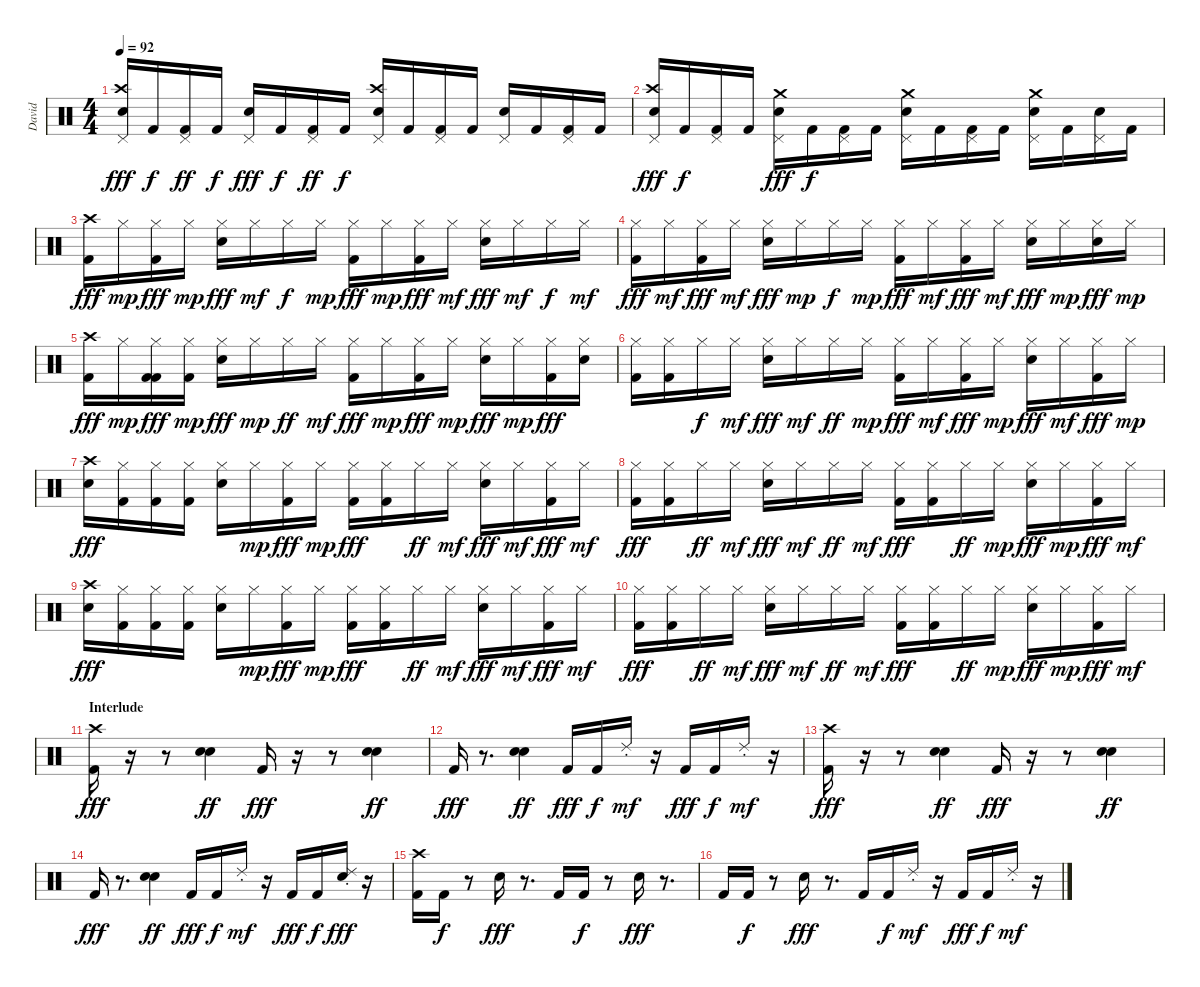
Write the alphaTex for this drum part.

\track ("David" "David") {instrument percussion}
\staff {score}
\articulation defaults
\ts (4 4)
\tempo 92
\clef neutral
\ks c
("Pedal Hi-Hat (hit)" "Crash high (hit)" "Electric Snare (hit)").16{dy fff} "Kick (hit) 2".16{dy f} ("Pedal Hi-Hat (hit)" "Kick (hit) 2").16{dy ff} "Kick (hit) 2".16{dy f} ("Pedal Hi-Hat (hit)" "Electric Snare (hit)").16{dy fff} "Kick (hit) 2".16{dy f} ("Pedal Hi-Hat (hit)" "Kick (hit) 2").16{dy ff} "Kick (hit) 2".16{dy f} ("Pedal Hi-Hat (hit)" "Crash high (hit)" "Electric Snare (hit)").16 "Kick (hit) 2".16 ("Pedal Hi-Hat (hit)" "Kick (hit) 2").16 "Kick (hit) 2".16 ("Pedal Hi-Hat (hit)" "Electric Snare (hit)").16 "Kick (hit) 2".16 ("Pedal Hi-Hat (hit)" "Kick (hit) 2").16 "Kick (hit) 2".16 |
("Pedal Hi-Hat (hit)" "Crash high (hit)" "Electric Snare (hit)").16{dy fff} "Kick (hit) 2".16{dy f} ("Pedal Hi-Hat (hit)" "Kick (hit) 2").16 "Kick (hit) 2".16 ("Pedal Hi-Hat (hit)" "Crash medium (hit)" "Electric Snare (hit)").16{dy fff} "Kick (hit) 2".16{dy f} ("Pedal Hi-Hat (hit)" "Kick (hit) 2").16 "Kick (hit) 2".16 ("Pedal Hi-Hat (hit)" "Crash medium (hit)" "Electric Snare (hit)").16 "Kick (hit) 2".16 ("Pedal Hi-Hat (hit)" "Kick (hit) 2").16 "Kick (hit) 2".16 ("Pedal Hi-Hat (hit)" "Crash medium (hit)" "Electric Snare (hit)").16 "Kick (hit) 2".16 ("Pedal Hi-Hat (hit)" "Electric Snare (hit)").16 "Kick (hit) 2".16 |
("Crash high (hit)" "Kick (hit) 2").16{dy fff} "Hi-Hat (closed)".16{dy mp} ("Hi-Hat (closed)" "Kick (hit) 2").16{dy fff} "Hi-Hat (closed)".16{dy mp} ("Hi-Hat (closed)" "Electric Snare (hit)").16{dy fff} "Hi-Hat (closed)".16{dy mf} "Hi-Hat (closed)".16{dy f} "Hi-Hat (closed)".16{dy mp} ("Hi-Hat (closed)" "Kick (hit) 2").16{dy fff} "Hi-Hat (closed)".16{dy mp} ("Hi-Hat (closed)" "Kick (hit) 2").16{dy fff} "Hi-Hat (closed)".16{dy mf} ("Hi-Hat (closed)" "Electric Snare (hit)").16{dy fff} "Hi-Hat (closed)".16{dy mf} "Hi-Hat (closed)".16{dy f} "Hi-Hat (closed)".16{dy mf} |
("Hi-Hat (closed)" "Kick (hit) 2").16{dy fff} "Hi-Hat (closed)".16{dy mf} ("Hi-Hat (closed)" "Kick (hit) 2").16{dy fff} "Hi-Hat (closed)".16{dy mf} ("Hi-Hat (closed)" "Electric Snare (hit)").16{dy fff} "Hi-Hat (closed)".16{dy mp} "Hi-Hat (closed)".16{dy f} "Hi-Hat (closed)".16{dy mp} ("Hi-Hat (closed)" "Kick (hit) 2").16{dy fff} "Hi-Hat (closed)".16{dy mf} ("Hi-Hat (closed)" "Kick (hit) 2").16{dy fff} "Hi-Hat (closed)".16{dy mf} ("Hi-Hat (closed)" "Electric Snare (hit)").16{dy fff} "Hi-Hat (closed)".16{dy mp} ("Hi-Hat (closed)" "Electric Snare (hit)").16{dy fff} "Hi-Hat (closed)".16{dy mp} |
("Crash high (hit)" "Kick (hit) 2").16{dy fff} "Hi-Hat (closed)".16{dy mp} ("Hi-Hat (closed)" "Kick (hit) 2" "Kick (hit) 2").16{dy fff} ("Hi-Hat (closed)" "Kick (hit) 2").16{dy mp} ("Hi-Hat (closed)" "Electric Snare (hit)").16{dy fff} "Hi-Hat (closed)".16{dy mp} "Hi-Hat (closed)".16{dy ff} "Hi-Hat (closed)".16{dy mf} ("Hi-Hat (closed)" "Kick (hit) 2").16{dy fff} "Hi-Hat (closed)".16{dy mp} ("Hi-Hat (closed)" "Kick (hit) 2").16{dy fff} "Hi-Hat (closed)".16{dy mp} ("Hi-Hat (closed)" "Electric Snare (hit)").16{dy fff} "Hi-Hat (closed)".16{dy mp} ("Hi-Hat (closed)" "Kick (hit) 2").16{dy fff} ("Hi-Hat (closed)" "Electric Snare (hit)").16 |
("Hi-Hat (closed)" "Kick (hit) 2").16 ("Hi-Hat (closed)" "Kick (hit) 2").16 "Hi-Hat (closed)".16{dy f} "Hi-Hat (closed)".16{dy mf} ("Hi-Hat (closed)" "Electric Snare (hit)").16{dy fff} "Hi-Hat (closed)".16{dy mf} "Hi-Hat (closed)".16{dy ff} "Hi-Hat (closed)".16{dy mp} ("Hi-Hat (closed)" "Kick (hit) 2").16{dy fff} "Hi-Hat (closed)".16{dy mf} ("Hi-Hat (closed)" "Kick (hit) 2").16{dy fff} "Hi-Hat (closed)".16{dy mp} ("Hi-Hat (closed)" "Electric Snare (hit)").16{dy fff} "Hi-Hat (closed)".16{dy mf} ("Hi-Hat (closed)" "Kick (hit) 2").16{dy fff} "Hi-Hat (closed)".16{dy mp} |
("Crash high (hit)" "Electric Snare (hit)").16{dy fff} ("Hi-Hat (closed)" "Kick (hit) 2").16 ("Hi-Hat (closed)" "Kick (hit) 2").16 ("Hi-Hat (closed)" "Kick (hit) 2").16 ("Hi-Hat (closed)" "Electric Snare (hit)").16 "Hi-Hat (closed)".16{dy mp} ("Hi-Hat (closed)" "Kick (hit) 2").16{dy fff} "Hi-Hat (closed)".16{dy mp} ("Hi-Hat (closed)" "Kick (hit) 2").16{dy fff} ("Hi-Hat (closed)" "Kick (hit) 2").16 "Hi-Hat (closed)".16{dy ff} "Hi-Hat (closed)".16{dy mf} ("Hi-Hat (closed)" "Electric Snare (hit)").16{dy fff} "Hi-Hat (closed)".16{dy mf} ("Hi-Hat (closed)" "Kick (hit) 2").16{dy fff} "Hi-Hat (closed)".16{dy mf} |
("Hi-Hat (closed)" "Kick (hit) 2").16{dy fff} ("Hi-Hat (closed)" "Kick (hit) 2").16 "Hi-Hat (closed)".16{dy ff} "Hi-Hat (closed)".16{dy mf} ("Hi-Hat (closed)" "Electric Snare (hit)").16{dy fff} "Hi-Hat (closed)".16{dy mf} "Hi-Hat (closed)".16{dy ff} "Hi-Hat (closed)".16{dy mf} ("Hi-Hat (closed)" "Kick (hit) 2").16{dy fff} ("Hi-Hat (closed)" "Kick (hit) 2").16 "Hi-Hat (closed)".16{dy ff} "Hi-Hat (closed)".16{dy mp} ("Hi-Hat (closed)" "Electric Snare (hit)").16{dy fff} "Hi-Hat (closed)".16{dy mp} ("Hi-Hat (closed)" "Kick (hit) 2").16{dy fff} "Hi-Hat (closed)".16{dy mf} |
("Crash high (hit)" "Electric Snare (hit)").16{dy fff} ("Hi-Hat (closed)" "Kick (hit) 2").16 ("Hi-Hat (closed)" "Kick (hit) 2").16 ("Hi-Hat (closed)" "Kick (hit) 2").16 ("Hi-Hat (closed)" "Electric Snare (hit)").16 "Hi-Hat (closed)".16{dy mp} ("Hi-Hat (closed)" "Kick (hit) 2").16{dy fff} "Hi-Hat (closed)".16{dy mp} ("Hi-Hat (closed)" "Kick (hit) 2").16{dy fff} ("Hi-Hat (closed)" "Kick (hit) 2").16 "Hi-Hat (closed)".16{dy ff} "Hi-Hat (closed)".16{dy mf} ("Hi-Hat (closed)" "Electric Snare (hit)").16{dy fff} "Hi-Hat (closed)".16{dy mf} ("Hi-Hat (closed)" "Kick (hit) 2").16{dy fff} "Hi-Hat (closed)".16{dy mf} |
("Hi-Hat (closed)" "Kick (hit) 2").16{dy fff} ("Hi-Hat (closed)" "Kick (hit) 2").16 "Hi-Hat (closed)".16{dy ff} "Hi-Hat (closed)".16{dy mf} ("Hi-Hat (closed)" "Electric Snare (hit)").16{dy fff} "Hi-Hat (closed)".16{dy mf} "Hi-Hat (closed)".16{dy ff} "Hi-Hat (closed)".16{dy mf} ("Hi-Hat (closed)" "Kick (hit) 2").16{dy fff} ("Hi-Hat (closed)" "Kick (hit) 2").16 "Hi-Hat (closed)".16{dy ff} "Hi-Hat (closed)".16{dy mp} ("Hi-Hat (closed)" "Electric Snare (hit)").16{dy fff} "Hi-Hat (closed)".16{dy mp} ("Hi-Hat (closed)" "Kick (hit) 2").16{dy fff} "Hi-Hat (closed)".16{dy mf} |
\section ("" "Interlude")
("Crash high (hit)" "Kick (hit) 2").16{dy fff} r.16 r.8 ("Electric Snare (hit)" "Electric Snare (hit)").4{dy ff} "Kick (hit) 2".16{dy fff} r.16 r.8 ("Electric Snare (hit)" "Electric Snare (hit)").4{dy ff} |
"Kick (hit) 2".16{dy fff} r.8{d} ("Electric Snare (hit)" "Electric Snare (hit)").4{dy ff} "Kick (hit) 2".16{dy fff} "Kick (hit) 2".16{dy f} "Ride (choke) 2".16{dy mf} r.16 "Kick (hit) 2".16{dy fff} "Kick (hit) 2".16{dy f} "Ride (choke) 2".16{dy mf} r.16 |
("Crash high (hit)" "Kick (hit) 2").16{dy fff} r.16 r.8 ("Electric Snare (hit)" "Electric Snare (hit)").4{dy ff} "Kick (hit) 2".16{dy fff} r.16 r.8 ("Electric Snare (hit)" "Electric Snare (hit)").4{dy ff} |
"Kick (hit) 2".16{dy fff} r.8{d} ("Electric Snare (hit)" "Electric Snare (hit)").4{dy ff} "Kick (hit) 2".16{dy fff} "Kick (hit) 2".16{dy f} "Ride (choke) 2".16{dy mf} r.16 "Kick (hit) 2".16{dy fff} "Kick (hit) 2".16{dy f} ("Ride (choke) 2" "Electric Snare (hit)").16{dy fff} r.16 |
("Crash high (hit)" "Kick (hit) 2").16 "Kick (hit) 2".16{dy f} r.8 "Electric Snare (hit)".16{dy fff} r.8{d} "Kick (hit) 2".16 "Kick (hit) 2".16{dy f} r.8 "Electric Snare (hit)".16{dy fff} r.8{d} |
"Kick (hit) 2".16 "Kick (hit) 2".16{dy f} r.8 "Electric Snare (hit)".16{dy fff} r.8{d} "Kick (hit) 2".16 "Kick (hit) 2".16{dy f} "Ride (choke) 2".16{dy mf} r.16 "Kick (hit) 2".16{dy fff} "Kick (hit) 2".16{dy f} "Ride (choke) 2".16{dy mf} r.16
